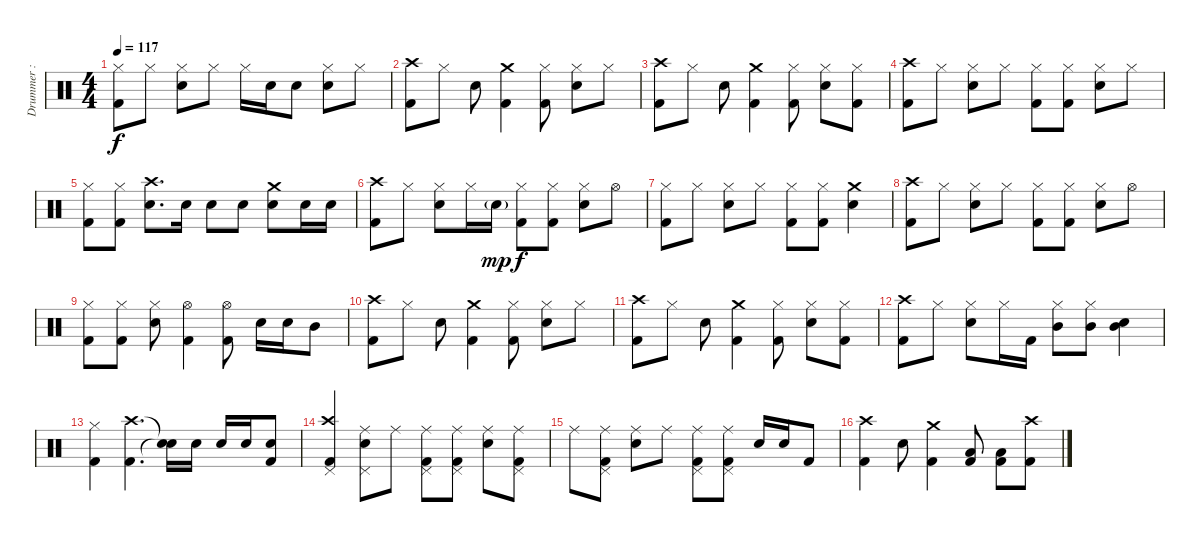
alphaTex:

\track ("Drummer : Tainaka Ritsu - San" "Drummer : ") {instrument percussion}
\staff {score}
\articulation defaults
\ts (4 4)
\tempo 117
\clef neutral
\ks c
("Hi-Hat (closed)" "Kick (hit) 2").8{dy f} "Hi-Hat (closed)".8 ("Hi-Hat (closed)" "Snare (hit) 2").8 "Hi-Hat (closed)".8 "Hi-Hat (closed)".16 "Snare (hit) 2".16 "Snare (hit) 2".8 ("Hi-Hat (closed)" "Snare (hit) 2").8 "Hi-Hat (closed)".8 |
("Crash high (hit)" "Kick (hit) 2").8 "Hi-Hat (closed)".8 "Snare (hit) 2".8 ("Crash medium (hit)" "Kick (hit) 2").4 ("Hi-Hat (closed)" "Kick (hit) 2").8 ("Hi-Hat (closed)" "Snare (hit) 2").8 "Hi-Hat (closed)".8 |
("Crash high (hit)" "Kick (hit) 2").8 "Hi-Hat (closed)".8 "Snare (hit) 2".8 ("Crash medium (hit)" "Kick (hit) 2").4 ("Hi-Hat (closed)" "Kick (hit) 2").8 ("Hi-Hat (closed)" "Snare (hit) 2").8 ("Hi-Hat (closed)" "Kick (hit) 2").8 |
("Crash high (hit)" "Kick (hit) 2").8 "Hi-Hat (closed)".8 ("Hi-Hat (closed)" "Snare (hit) 2").8 "Hi-Hat (closed)".8 ("Hi-Hat (closed)" "Kick (hit) 2").8 ("Hi-Hat (closed)" "Kick (hit) 2").8 ("Hi-Hat (closed)" "Snare (hit) 2").8 "Hi-Hat (closed)".8 |
("Hi-Hat (closed)" "Kick (hit) 2").8 ("Hi-Hat (closed)" "Kick (hit) 2").8 ("Crash high (hit)" "Snare (hit) 2").8{d} "Snare (hit) 2".16 "Snare (hit) 2".8 "Snare (hit) 2".8 ("Crash medium (hit)" "Snare (hit) 2").8 "Snare (hit) 2".16 "Snare (hit) 2".16 |
("Crash high (hit)" "Kick (hit) 2").8 "Hi-Hat (closed)".8 ("Hi-Hat (closed)" "Snare (hit) 2").8 "Hi-Hat (closed)".16 "Snare (hit) 2"{g}.16{dy mp} ("Hi-Hat (closed)" "Kick (hit) 2").8{dy f} ("Hi-Hat (closed)" "Kick (hit) 2").8 ("Hi-Hat (closed)" "Snare (hit) 2").8 "Hi-Hat (open)".8 |
("Hi-Hat (closed)" "Kick (hit) 2").8 "Hi-Hat (closed)".8 ("Hi-Hat (closed)" "Snare (hit) 2").8 "Hi-Hat (closed)".8 ("Hi-Hat (closed)" "Kick (hit) 2").8 ("Hi-Hat (closed)" "Kick (hit) 2").8 ("Crash medium (hit)" "Snare (hit) 2").4 |
("Crash high (hit)" "Kick (hit) 2").8 "Hi-Hat (closed)".8 ("Hi-Hat (closed)" "Snare (hit) 2").8 "Hi-Hat (closed)".8 ("Hi-Hat (closed)" "Kick (hit) 2").8 ("Hi-Hat (closed)" "Kick (hit) 2").8 ("Hi-Hat (closed)" "Snare (hit) 2").8 "Hi-Hat (open)".8 |
("Hi-Hat (closed)" "Kick (hit) 2").8 ("Hi-Hat (closed)" "Kick (hit) 2").8 ("Hi-Hat (closed)" "Snare (hit) 2").8 ("Hi-Hat (open)" "Kick (hit) 2").4 ("Hi-Hat (open)" "Kick (hit) 2").8 "Snare (hit) 2".16 "Snare (hit) 2".16 "Mid Tom (hit)".8 |
("Crash high (hit)" "Kick (hit) 2").8 "Hi-Hat (closed)".8 "Snare (hit) 2".8 ("Crash medium (hit)" "Kick (hit) 2").4 ("Hi-Hat (closed)" "Kick (hit) 2").8 ("Hi-Hat (closed)" "Snare (hit) 2").8 "Hi-Hat (closed)".8 |
("Crash high (hit)" "Kick (hit) 2").8 "Hi-Hat (closed)".8 "Snare (hit) 2".8 ("Crash medium (hit)" "Kick (hit) 2").4 ("Hi-Hat (closed)" "Kick (hit) 2").8 ("Hi-Hat (closed)" "Snare (hit) 2").8 ("Hi-Hat (closed)" "Kick (hit) 2").8 |
("Crash high (hit)" "Kick (hit) 2").8 "Hi-Hat (closed)".8 ("Hi-Hat (closed)" "Snare (hit) 2").8 "Hi-Hat (closed)".16 "Kick (hit) 2".16 ("Mid Tom (hit)" "Hi-Hat (closed)").8 ("Mid Tom (hit)" "Hi-Hat (closed)").8 ("Mid Tom (hit)" "Snare (hit) 2").4 |
("Hi-Hat (closed)" "Kick (hit) 2").4 ("Crash high (hit)" "Kick (hit) 2").4{d} ("Snare (hit)"{t} "Snare (hit)"{t}).16 "Snare (hit) 2".16 "Snare (hit) 2".16 "Snare (hit) 2".16 ("Snare (hit) 2" "Kick (hit) 2").8 |
("Crash high (hit)" "Pedal Hi-Hat (hit)" "Kick (hit) 2").4 ("Ride (middle)" "Pedal Hi-Hat (hit)" "Snare (hit) 2").8 "Ride (middle)".8 ("Ride (middle)" "Pedal Hi-Hat (hit)" "Kick (hit) 2").8 ("Ride (middle)" "Pedal Hi-Hat (hit)" "Kick (hit) 2").8 ("Ride (middle)" "Snare (hit) 2").8 ("Ride (middle)" "Pedal Hi-Hat (hit)" "Kick (hit) 2").8 |
"Ride (middle)".8 ("Ride (middle)" "Pedal Hi-Hat (hit)" "Kick (hit) 2").8 ("Ride (middle)" "Snare (hit) 2").8 "Ride (middle)".8 ("Ride (middle)" "Pedal Hi-Hat (hit)" "Kick (hit) 2").8 ("Ride (middle)" "Pedal Hi-Hat (hit)" "Kick (hit) 2").8 "Snare (hit) 2".16 "Snare (hit) 2".16 "Kick (hit) 2".8 |
("Crash high (hit)" "Kick (hit) 2").4 "Snare (hit) 2".8 ("Crash medium (hit)" "Kick (hit) 2").4 ("Low Tom (hit)" "Kick (hit) 2").8 ("Low Tom (hit)" "Kick (hit) 2").8 ("Crash high (hit)" "Kick (hit) 2").8
